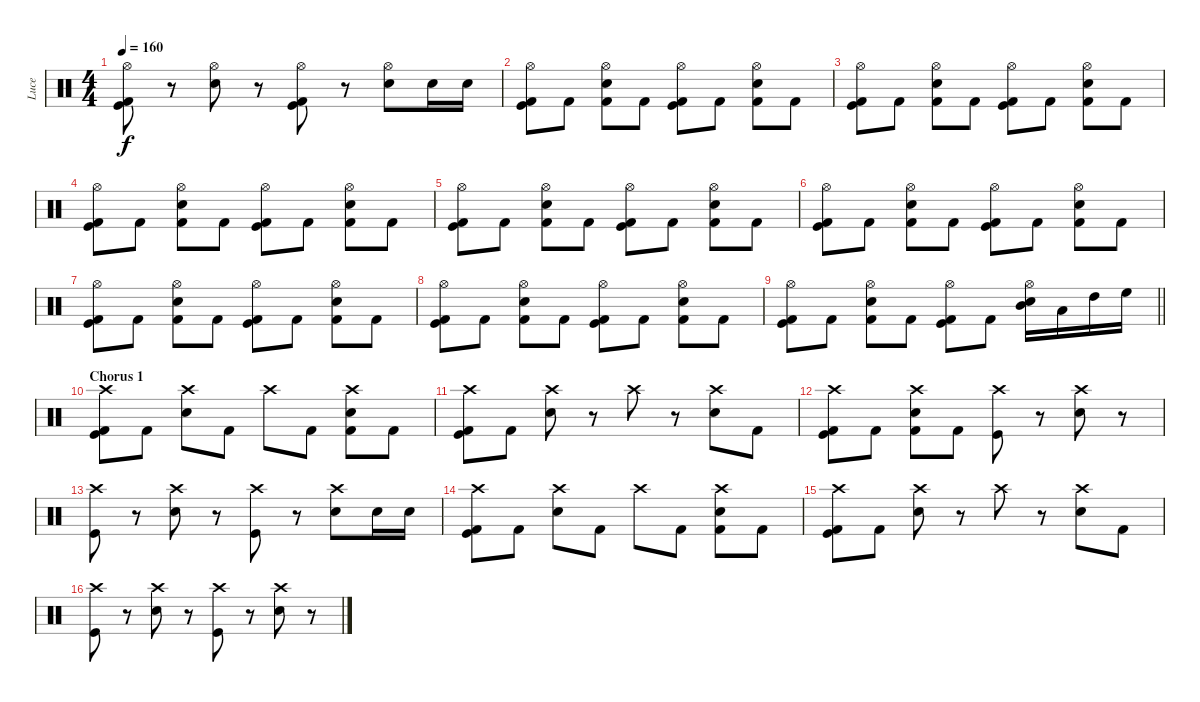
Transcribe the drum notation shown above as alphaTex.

\track ("Luce" "Luce") {instrument percussion}
\staff {score}
\articulation defaults
\ts (4 4)
\tempo 160
\clef neutral
\ks c
("Hi-Hat (open)" "Kick (hit) 2" "Kick (hit)").8{dy f} r.8 ("Hi-Hat (open)" "Snare (hit) 2").8 r.8 ("Hi-Hat (open)" "Kick (hit) 2" "Kick (hit)").8 r.8 ("Hi-Hat (open)" "Snare (hit) 2").8 "Snare (hit) 2".16 "Snare (hit) 2".16 |
("Hi-Hat (open)" "Kick (hit) 2" "Kick (hit)").8 "Kick (hit) 2".8 ("Hi-Hat (open)" "Kick (hit) 2" "Snare (hit) 2").8 "Kick (hit) 2".8 ("Hi-Hat (open)" "Kick (hit) 2" "Kick (hit)").8 "Kick (hit) 2".8 ("Hi-Hat (open)" "Kick (hit) 2" "Snare (hit) 2").8 "Kick (hit) 2".8 |
("Hi-Hat (open)" "Kick (hit) 2" "Kick (hit)").8 "Kick (hit) 2".8 ("Hi-Hat (open)" "Kick (hit) 2" "Snare (hit) 2").8 "Kick (hit) 2".8 ("Hi-Hat (open)" "Kick (hit) 2" "Kick (hit)").8 "Kick (hit) 2".8 ("Hi-Hat (open)" "Kick (hit) 2" "Snare (hit) 2").8 "Kick (hit) 2".8 |
("Hi-Hat (open)" "Kick (hit) 2" "Kick (hit)").8 "Kick (hit) 2".8 ("Hi-Hat (open)" "Kick (hit) 2" "Snare (hit) 2").8 "Kick (hit) 2".8 ("Hi-Hat (open)" "Kick (hit) 2" "Kick (hit)").8 "Kick (hit) 2".8 ("Hi-Hat (open)" "Kick (hit) 2" "Snare (hit) 2").8 "Kick (hit) 2".8 |
("Hi-Hat (open)" "Kick (hit) 2" "Kick (hit)").8 "Kick (hit) 2".8 ("Hi-Hat (open)" "Kick (hit) 2" "Snare (hit) 2").8 "Kick (hit) 2".8 ("Hi-Hat (open)" "Kick (hit) 2" "Kick (hit)").8 "Kick (hit) 2".8 ("Hi-Hat (open)" "Kick (hit) 2" "Snare (hit) 2").8 "Kick (hit) 2".8 |
("Hi-Hat (open)" "Kick (hit) 2" "Kick (hit)").8 "Kick (hit) 2".8 ("Hi-Hat (open)" "Kick (hit) 2" "Snare (hit) 2").8 "Kick (hit) 2".8 ("Hi-Hat (open)" "Kick (hit) 2" "Kick (hit)").8 "Kick (hit) 2".8 ("Hi-Hat (open)" "Kick (hit) 2" "Snare (hit) 2").8 "Kick (hit) 2".8 |
("Hi-Hat (open)" "Kick (hit) 2" "Kick (hit)").8 "Kick (hit) 2".8 ("Hi-Hat (open)" "Kick (hit) 2" "Snare (hit) 2").8 "Kick (hit) 2".8 ("Hi-Hat (open)" "Kick (hit) 2" "Kick (hit)").8 "Kick (hit) 2".8 ("Hi-Hat (open)" "Kick (hit) 2" "Snare (hit) 2").8 "Kick (hit) 2".8 |
("Hi-Hat (open)" "Kick (hit) 2" "Kick (hit)").8 "Kick (hit) 2".8 ("Hi-Hat (open)" "Kick (hit) 2" "Snare (hit) 2").8 "Kick (hit) 2".8 ("Hi-Hat (open)" "Kick (hit) 2" "Kick (hit)").8 "Kick (hit) 2".8 ("Hi-Hat (open)" "Kick (hit) 2" "Snare (hit) 2").8 "Kick (hit) 2".8 |
\barLineRight lightlight
("Hi-Hat (open)" "Kick (hit) 2" "Kick (hit)").8 "Kick (hit) 2".8 ("Hi-Hat (open)" "Kick (hit) 2" "Snare (hit) 2").8 "Kick (hit) 2".8 ("Hi-Hat (open)" "Kick (hit) 2" "Kick (hit)").8 "Kick (hit) 2".8 ("Hi-Hat (open)" "Mid Tom (hit)" "Snare (hit) 2").16 "Low Tom (hit)".16 "High Tom (hit)".16 "High Floor Tom (hit)".16 |
\section ("" "Chorus 1")
("Crash high (hit)" "Kick (hit) 2" "Kick (hit)").8 "Kick (hit) 2".8 ("Crash high (hit)" "Snare (hit) 2").8 "Kick (hit) 2".8 "Crash high (hit)".8 "Kick (hit) 2".8 ("Crash high (hit)" "Kick (hit) 2" "Snare (hit) 2").8 "Kick (hit) 2".8 |
("Crash high (hit)" "Kick (hit) 2" "Kick (hit)").8 "Kick (hit) 2".8 ("Crash high (hit)" "Snare (hit) 2").8 r.8 "Crash high (hit)".8 r.8 ("Crash high (hit)" "Snare (hit) 2").8 "Kick (hit) 2".8 |
("Crash high (hit)" "Kick (hit) 2" "Kick (hit)").8 "Kick (hit) 2".8 ("Crash high (hit)" "Kick (hit) 2" "Snare (hit) 2").8 "Kick (hit) 2".8 ("Crash high (hit)" "Kick (hit)").8 r.8 ("Crash high (hit)" "Snare (hit) 2").8 r.8 |
("Crash high (hit)" "Kick (hit)").8 r.8 ("Crash high (hit)" "Snare (hit) 2").8 r.8 ("Crash high (hit)" "Kick (hit)").8 r.8 ("Crash high (hit)" "Snare (hit) 2").8 "Snare (hit) 2".16 "Snare (hit) 2".16 |
("Crash high (hit)" "Kick (hit) 2" "Kick (hit)").8 "Kick (hit) 2".8 ("Crash high (hit)" "Snare (hit) 2").8 "Kick (hit) 2".8 "Crash high (hit)".8 "Kick (hit) 2".8 ("Crash high (hit)" "Kick (hit) 2" "Snare (hit) 2").8 "Kick (hit) 2".8 |
("Crash high (hit)" "Kick (hit) 2" "Kick (hit)").8 "Kick (hit) 2".8 ("Crash high (hit)" "Snare (hit) 2").8 r.8 "Crash high (hit)".8 r.8 ("Crash high (hit)" "Snare (hit) 2").8 "Kick (hit) 2".8 |
("Crash high (hit)" "Kick (hit)").8 r.8 ("Crash high (hit)" "Snare (hit) 2").8 r.8 ("Crash high (hit)" "Kick (hit)").8 r.8 ("Crash high (hit)" "Snare (hit) 2").8 r.8
